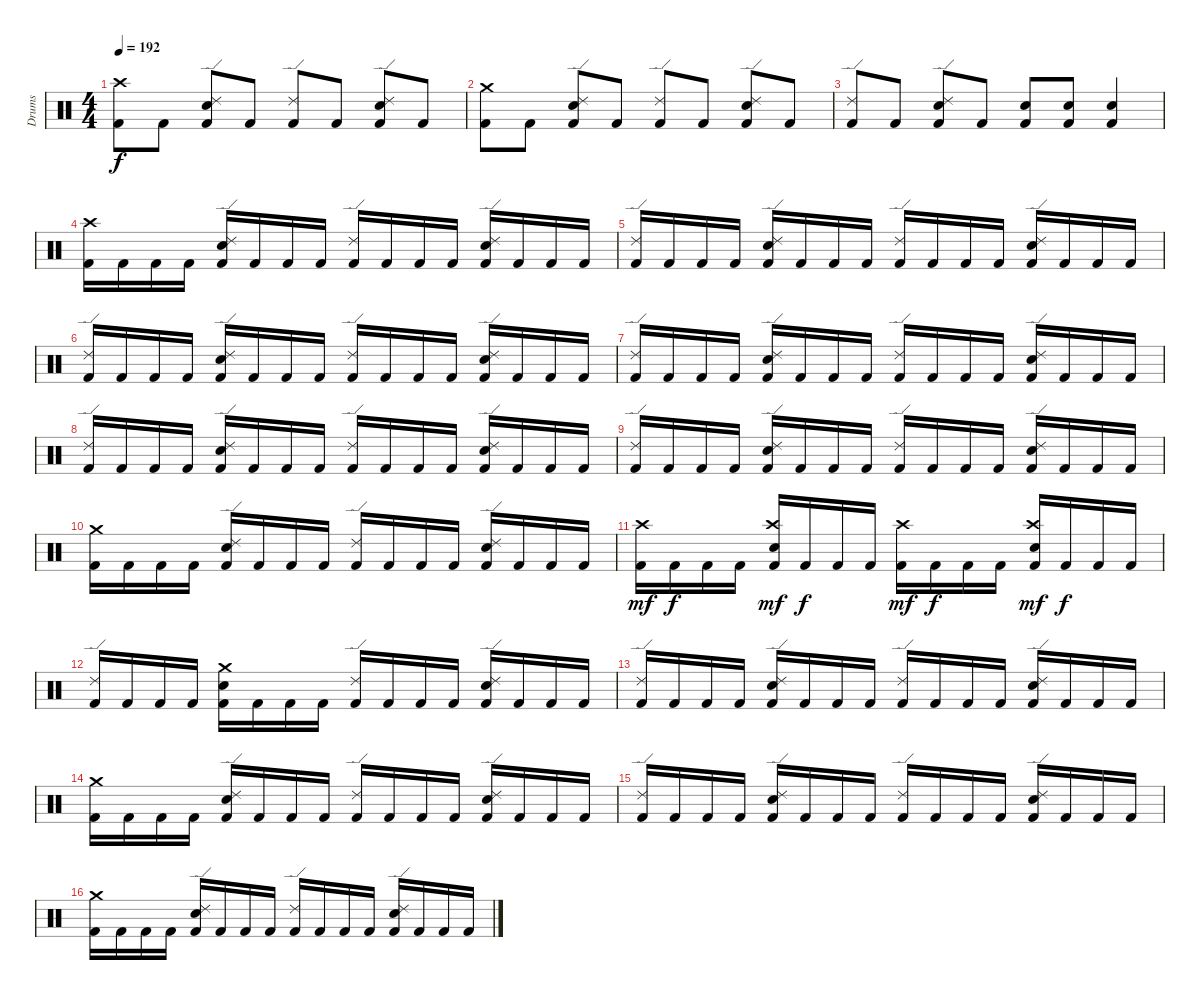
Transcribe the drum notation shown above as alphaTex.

\track ("Drums" "Drums") {instrument percussion}
\staff {score}
\articulation defaults
\ts (4 4)
\tempo 192
\clef neutral
\ks c
("Kick (hit) 2" "Crash high (hit)").8{dy f} "Kick (hit) 2".8 ("Kick (hit) 2" "Electric Snare (hit)" "Ride (edge) 2").8 "Kick (hit) 2".8 ("Kick (hit) 2" "Ride (edge) 2").8 "Kick (hit) 2".8 ("Kick (hit) 2" "Electric Snare (hit)" "Ride (edge) 2").8 "Kick (hit) 2".8 |
("Kick (hit) 2" "Crash medium (hit)").8 "Kick (hit) 2".8 ("Kick (hit) 2" "Electric Snare (hit)" "Ride (edge) 2").8 "Kick (hit) 2".8 ("Kick (hit) 2" "Ride (edge) 2").8 "Kick (hit) 2".8 ("Kick (hit) 2" "Electric Snare (hit)" "Ride (edge) 2").8 "Kick (hit) 2".8 |
("Kick (hit) 2" "Ride (edge) 2").8 "Kick (hit) 2".8 ("Kick (hit) 2" "Electric Snare (hit)" "Ride (edge) 2").8 "Kick (hit) 2".8 ("Kick (hit) 2" "Electric Snare (hit)").8 ("Kick (hit) 2" "Electric Snare (hit)").8 ("Kick (hit) 2" "Electric Snare (hit)").4 |
\section ("" "")
("Kick (hit) 2" "Crash high (hit)").16 "Kick (hit) 2".16 "Kick (hit) 2".16 "Kick (hit) 2".16 ("Kick (hit) 2" "Electric Snare (hit)" "Ride (edge) 2").16 "Kick (hit) 2".16 "Kick (hit) 2".16 "Kick (hit) 2".16 ("Kick (hit) 2" "Ride (edge) 2").16 "Kick (hit) 2".16 "Kick (hit) 2".16 "Kick (hit) 2".16 ("Kick (hit) 2" "Electric Snare (hit)" "Ride (edge) 2").16 "Kick (hit) 2".16 "Kick (hit) 2".16 "Kick (hit) 2".16 |
("Kick (hit) 2" "Ride (edge) 2").16 "Kick (hit) 2".16 "Kick (hit) 2".16 "Kick (hit) 2".16 ("Kick (hit) 2" "Electric Snare (hit)" "Ride (edge) 2").16 "Kick (hit) 2".16 "Kick (hit) 2".16 "Kick (hit) 2".16 ("Kick (hit) 2" "Ride (edge) 2").16 "Kick (hit) 2".16 "Kick (hit) 2".16 "Kick (hit) 2".16 ("Kick (hit) 2" "Electric Snare (hit)" "Ride (edge) 2").16 "Kick (hit) 2".16 "Kick (hit) 2".16 "Kick (hit) 2".16 |
("Kick (hit) 2" "Ride (edge) 2").16 "Kick (hit) 2".16 "Kick (hit) 2".16 "Kick (hit) 2".16 ("Kick (hit) 2" "Electric Snare (hit)" "Ride (edge) 2").16 "Kick (hit) 2".16 "Kick (hit) 2".16 "Kick (hit) 2".16 ("Kick (hit) 2" "Ride (edge) 2").16 "Kick (hit) 2".16 "Kick (hit) 2".16 "Kick (hit) 2".16 ("Kick (hit) 2" "Electric Snare (hit)" "Ride (edge) 2").16 "Kick (hit) 2".16 "Kick (hit) 2".16 "Kick (hit) 2".16 |
("Kick (hit) 2" "Ride (edge) 2").16 "Kick (hit) 2".16 "Kick (hit) 2".16 "Kick (hit) 2".16 ("Kick (hit) 2" "Electric Snare (hit)" "Ride (edge) 2").16 "Kick (hit) 2".16 "Kick (hit) 2".16 "Kick (hit) 2".16 ("Kick (hit) 2" "Ride (edge) 2").16 "Kick (hit) 2".16 "Kick (hit) 2".16 "Kick (hit) 2".16 ("Kick (hit) 2" "Electric Snare (hit)" "Ride (edge) 2").16 "Kick (hit) 2".16 "Kick (hit) 2".16 "Kick (hit) 2".16 |
("Kick (hit) 2" "Ride (edge) 2").16 "Kick (hit) 2".16 "Kick (hit) 2".16 "Kick (hit) 2".16 ("Kick (hit) 2" "Electric Snare (hit)" "Ride (edge) 2").16 "Kick (hit) 2".16 "Kick (hit) 2".16 "Kick (hit) 2".16 ("Kick (hit) 2" "Ride (edge) 2").16 "Kick (hit) 2".16 "Kick (hit) 2".16 "Kick (hit) 2".16 ("Kick (hit) 2" "Electric Snare (hit)" "Ride (edge) 2").16 "Kick (hit) 2".16 "Kick (hit) 2".16 "Kick (hit) 2".16 |
("Kick (hit) 2" "Ride (edge) 2").16 "Kick (hit) 2".16 "Kick (hit) 2".16 "Kick (hit) 2".16 ("Kick (hit) 2" "Electric Snare (hit)" "Ride (edge) 2").16 "Kick (hit) 2".16 "Kick (hit) 2".16 "Kick (hit) 2".16 ("Kick (hit) 2" "Ride (edge) 2").16 "Kick (hit) 2".16 "Kick (hit) 2".16 "Kick (hit) 2".16 ("Kick (hit) 2" "Electric Snare (hit)" "Ride (edge) 2").16 "Kick (hit) 2".16 "Kick (hit) 2".16 "Kick (hit) 2".16 |
("Kick (hit) 2" "Crash medium (hit)").16 "Kick (hit) 2".16 "Kick (hit) 2".16 "Kick (hit) 2".16 ("Kick (hit) 2" "Electric Snare (hit)" "Ride (edge) 2").16 "Kick (hit) 2".16 "Kick (hit) 2".16 "Kick (hit) 2".16 ("Kick (hit) 2" "Ride (edge) 2").16 "Kick (hit) 2".16 "Kick (hit) 2".16 "Kick (hit) 2".16 ("Kick (hit) 2" "Electric Snare (hit)" "Ride (edge) 2").16 "Kick (hit) 2".16 "Kick (hit) 2".16 "Kick (hit) 2".16 |
("Kick (hit) 2" "Crash high (hit)").16{dy mf} "Kick (hit) 2".16{dy f} "Kick (hit) 2".16 "Kick (hit) 2".16 ("Kick (hit) 2" "Electric Snare (hit)" "Crash high (hit)").16{dy mf} "Kick (hit) 2".16{dy f} "Kick (hit) 2".16 "Kick (hit) 2".16 ("Kick (hit) 2" "Crash high (hit)").16{dy mf} "Kick (hit) 2".16{dy f} "Kick (hit) 2".16 "Kick (hit) 2".16 ("Kick (hit) 2" "Electric Snare (hit)" "Crash high (hit)").16{dy mf} "Kick (hit) 2".16{dy f} "Kick (hit) 2".16 "Kick (hit) 2".16 |
("Kick (hit) 2" "Ride (edge) 2").16 "Kick (hit) 2".16 "Kick (hit) 2".16 "Kick (hit) 2".16 ("Kick (hit) 2" "Electric Snare (hit)" "Crash medium (hit)").16 "Kick (hit) 2".16 "Kick (hit) 2".16 "Kick (hit) 2".16 ("Kick (hit) 2" "Ride (edge) 2").16 "Kick (hit) 2".16 "Kick (hit) 2".16 "Kick (hit) 2".16 ("Kick (hit) 2" "Electric Snare (hit)" "Ride (edge) 2").16 "Kick (hit) 2".16 "Kick (hit) 2".16 "Kick (hit) 2".16 |
("Kick (hit) 2" "Ride (edge) 2").16 "Kick (hit) 2".16 "Kick (hit) 2".16 "Kick (hit) 2".16 ("Kick (hit) 2" "Electric Snare (hit)" "Ride (edge) 2").16 "Kick (hit) 2".16 "Kick (hit) 2".16 "Kick (hit) 2".16 ("Kick (hit) 2" "Ride (edge) 2").16 "Kick (hit) 2".16 "Kick (hit) 2".16 "Kick (hit) 2".16 ("Kick (hit) 2" "Electric Snare (hit)" "Ride (edge) 2").16 "Kick (hit) 2".16 "Kick (hit) 2".16 "Kick (hit) 2".16 |
("Kick (hit) 2" "Crash medium (hit)").16 "Kick (hit) 2".16 "Kick (hit) 2".16 "Kick (hit) 2".16 ("Kick (hit) 2" "Electric Snare (hit)" "Ride (edge) 2").16 "Kick (hit) 2".16 "Kick (hit) 2".16 "Kick (hit) 2".16 ("Kick (hit) 2" "Ride (edge) 2").16 "Kick (hit) 2".16 "Kick (hit) 2".16 "Kick (hit) 2".16 ("Kick (hit) 2" "Electric Snare (hit)" "Ride (edge) 2").16 "Kick (hit) 2".16 "Kick (hit) 2".16 "Kick (hit) 2".16 |
("Kick (hit) 2" "Ride (edge) 2").16 "Kick (hit) 2".16 "Kick (hit) 2".16 "Kick (hit) 2".16 ("Kick (hit) 2" "Electric Snare (hit)" "Ride (edge) 2").16 "Kick (hit) 2".16 "Kick (hit) 2".16 "Kick (hit) 2".16 ("Kick (hit) 2" "Ride (edge) 2").16 "Kick (hit) 2".16 "Kick (hit) 2".16 "Kick (hit) 2".16 ("Kick (hit) 2" "Electric Snare (hit)" "Ride (edge) 2").16 "Kick (hit) 2".16 "Kick (hit) 2".16 "Kick (hit) 2".16 |
("Kick (hit) 2" "Crash medium (hit)").16 "Kick (hit) 2".16 "Kick (hit) 2".16 "Kick (hit) 2".16 ("Kick (hit) 2" "Electric Snare (hit)" "Ride (edge) 2").16 "Kick (hit) 2".16 "Kick (hit) 2".16 "Kick (hit) 2".16 ("Kick (hit) 2" "Ride (edge) 2").16 "Kick (hit) 2".16 "Kick (hit) 2".16 "Kick (hit) 2".16 ("Kick (hit) 2" "Electric Snare (hit)" "Ride (edge) 2").16 "Kick (hit) 2".16 "Kick (hit) 2".16 "Kick (hit) 2".16
